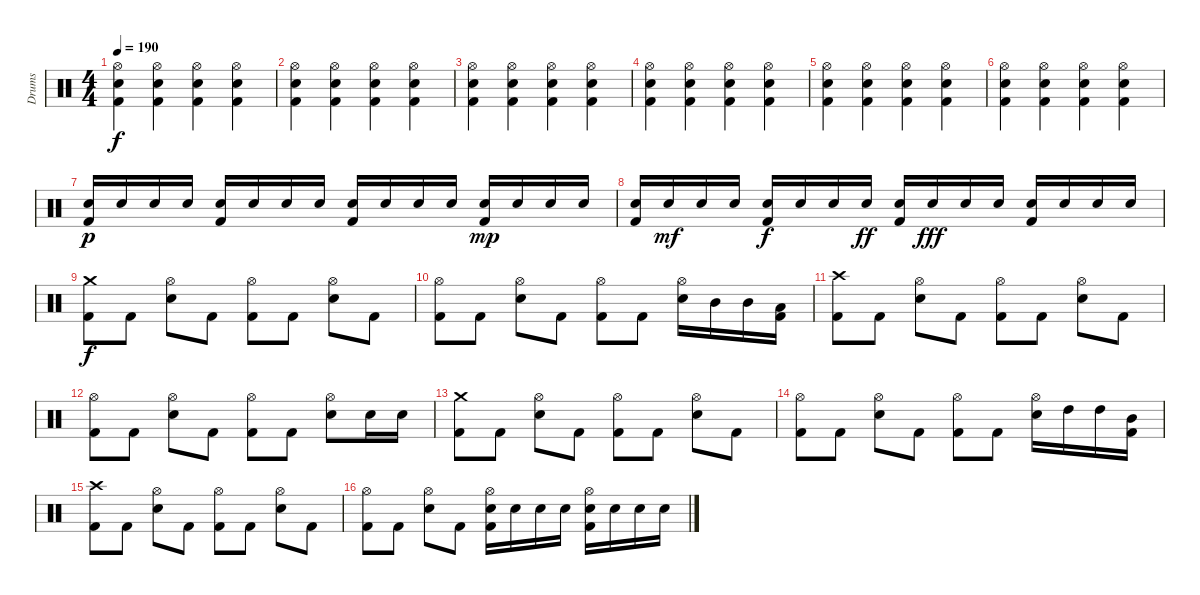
\track ("Drums" "Drums") {instrument percussion}
\staff {score}
\articulation defaults
\ts (4 4)
\tempo 190
\clef neutral
\ks c
("Hi-Hat (open)" "Snare (hit) 2" "Kick (hit) 2").4{dy f} ("Hi-Hat (open)" "Snare (hit) 2" "Kick (hit) 2").4 ("Hi-Hat (open)" "Snare (hit) 2" "Kick (hit) 2").4 ("Hi-Hat (open)" "Snare (hit) 2" "Kick (hit) 2").4 |
("Hi-Hat (open)" "Snare (hit) 2" "Kick (hit) 2").4 ("Hi-Hat (open)" "Snare (hit) 2" "Kick (hit) 2").4 ("Hi-Hat (open)" "Snare (hit) 2" "Kick (hit) 2").4 ("Hi-Hat (open)" "Snare (hit) 2" "Kick (hit) 2").4 |
("Hi-Hat (open)" "Snare (hit) 2" "Kick (hit) 2").4 ("Hi-Hat (open)" "Snare (hit) 2" "Kick (hit) 2").4 ("Hi-Hat (open)" "Snare (hit) 2" "Kick (hit) 2").4 ("Hi-Hat (open)" "Snare (hit) 2" "Kick (hit) 2").4 |
("Hi-Hat (open)" "Snare (hit) 2" "Kick (hit) 2").4 ("Hi-Hat (open)" "Snare (hit) 2" "Kick (hit) 2").4 ("Hi-Hat (open)" "Snare (hit) 2" "Kick (hit) 2").4 ("Hi-Hat (open)" "Snare (hit) 2" "Kick (hit) 2").4 |
("Hi-Hat (open)" "Snare (hit) 2" "Kick (hit) 2").4 ("Hi-Hat (open)" "Snare (hit) 2" "Kick (hit) 2").4 ("Hi-Hat (open)" "Snare (hit) 2" "Kick (hit) 2").4 ("Hi-Hat (open)" "Snare (hit) 2" "Kick (hit) 2").4 |
("Hi-Hat (open)" "Snare (hit) 2" "Kick (hit) 2").4 ("Hi-Hat (open)" "Snare (hit) 2" "Kick (hit) 2").4 ("Hi-Hat (open)" "Snare (hit) 2" "Kick (hit) 2").4 ("Hi-Hat (open)" "Snare (hit) 2" "Kick (hit) 2").4 |
("Snare (hit) 2" "Kick (hit) 2").16{dy p} "Snare (hit) 2".16 "Snare (hit) 2".16 "Snare (hit) 2".16 ("Snare (hit) 2" "Kick (hit) 2").16 "Snare (hit) 2".16 "Snare (hit) 2".16 "Snare (hit) 2".16 ("Snare (hit) 2" "Kick (hit) 2").16 "Snare (hit) 2".16 "Snare (hit) 2".16 "Snare (hit) 2".16 ("Snare (hit) 2" "Kick (hit) 2").16{dy mp} "Snare (hit) 2".16 "Snare (hit) 2".16 "Snare (hit) 2".16 |
("Snare (hit) 2" "Kick (hit) 2").16 "Snare (hit) 2".16{dy mf} "Snare (hit) 2".16 "Snare (hit) 2".16 ("Snare (hit) 2" "Kick (hit) 2").16{dy f} "Snare (hit) 2".16 "Snare (hit) 2".16 "Snare (hit) 2".16{dy ff} ("Snare (hit) 2" "Kick (hit) 2").16 "Snare (hit) 2".16{dy fff} "Snare (hit) 2".16 "Snare (hit) 2".16 ("Snare (hit) 2" "Kick (hit) 2").16 "Snare (hit) 2".16 "Snare (hit) 2".16 "Snare (hit) 2".16 |
("Crash medium (hit)" "Kick (hit) 2").8{dy f} "Kick (hit) 2".8 ("Hi-Hat (open)" "Snare (hit) 2").8 "Kick (hit) 2".8 ("Hi-Hat (open)" "Kick (hit) 2").8 "Kick (hit) 2".8 ("Hi-Hat (open)" "Snare (hit) 2").8 "Kick (hit) 2".8 |
("Hi-Hat (open)" "Kick (hit) 2").8 "Kick (hit) 2".8 ("Hi-Hat (open)" "Snare (hit) 2").8 "Kick (hit) 2".8 ("Hi-Hat (open)" "Kick (hit) 2").8 "Kick (hit) 2".8 ("Hi-Hat (open)" "Snare (hit) 2").16 "Mid Tom (hit)".16 "Mid Tom (hit)".16 ("Kick (hit) 2" "Low Tom (hit)").16 |
("Crash high (hit)" "Kick (hit) 2").8 "Kick (hit) 2".8 ("Hi-Hat (open)" "Snare (hit) 2").8 "Kick (hit) 2".8 ("Hi-Hat (open)" "Kick (hit) 2").8 "Kick (hit) 2".8 ("Hi-Hat (open)" "Snare (hit) 2").8 "Kick (hit) 2".8 |
("Hi-Hat (open)" "Kick (hit) 2").8 "Kick (hit) 2".8 ("Hi-Hat (open)" "Snare (hit) 2").8 "Kick (hit) 2".8 ("Hi-Hat (open)" "Kick (hit) 2").8 "Kick (hit) 2".8 ("Hi-Hat (open)" "Snare (hit) 2").8 "Snare (hit) 2".16 "Snare (hit) 2".16 |
("Crash medium (hit)" "Kick (hit) 2").8 "Kick (hit) 2".8 ("Hi-Hat (open)" "Snare (hit) 2").8 "Kick (hit) 2".8 ("Hi-Hat (open)" "Kick (hit) 2").8 "Kick (hit) 2".8 ("Hi-Hat (open)" "Snare (hit) 2").8 "Kick (hit) 2".8 |
("Hi-Hat (open)" "Kick (hit) 2").8 "Kick (hit) 2".8 ("Hi-Hat (open)" "Snare (hit) 2").8 "Kick (hit) 2".8 ("Hi-Hat (open)" "Kick (hit) 2").8 "Kick (hit) 2".8 ("Hi-Hat (open)" "Snare (hit) 2").16 "High Tom (hit)".16 "High Tom (hit)".16 ("Kick (hit) 2" "Mid Tom (hit)").16 |
("Crash high (hit)" "Kick (hit) 2").8 "Kick (hit) 2".8 ("Hi-Hat (open)" "Snare (hit) 2").8 "Kick (hit) 2".8 ("Hi-Hat (open)" "Kick (hit) 2").8 "Kick (hit) 2".8 ("Hi-Hat (open)" "Snare (hit) 2").8 "Kick (hit) 2".8 |
("Hi-Hat (open)" "Kick (hit) 2").8 "Kick (hit) 2".8 ("Hi-Hat (open)" "Snare (hit) 2").8 "Kick (hit) 2".8 ("Hi-Hat (open)" "Kick (hit) 2" "Snare (hit) 2").16 "Snare (hit) 2".16 "Snare (hit) 2".16 "Snare (hit) 2".16 ("Hi-Hat (open)" "Kick (hit) 2" "Snare (hit) 2").16 "Snare (hit) 2".16 "Snare (hit) 2".16 "Snare (hit) 2".16
